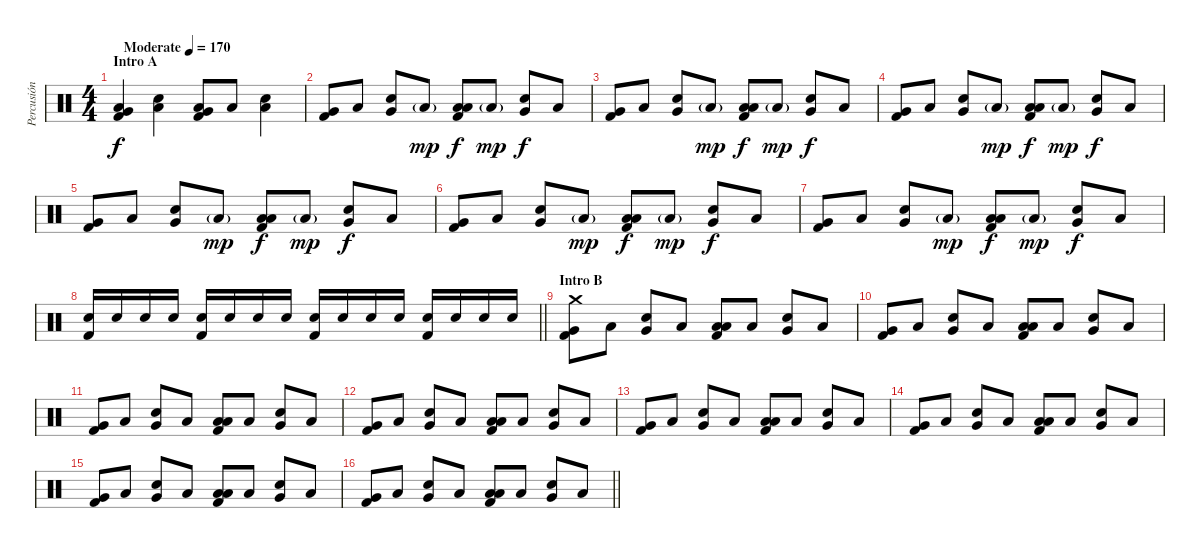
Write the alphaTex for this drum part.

\track ("Percusión" "Percusión") {instrument percussion}
\staff {score}
\articulation defaults
\ts (4 4)
\section ("" "Intro A")
\tempo (170 "Moderate")
\clef neutral
\ks c
("Very Low Tom (hit)" "Low Floor Tom (hit)" "Kick (hit) 2").4{dy f} ("Snare (hit) 2" "Low Tom (hit)").4 ("Very Low Tom (hit)" "Low Floor Tom (hit)" "Kick (hit) 2").8 "Low Tom (hit)".8 ("Snare (hit) 2" "Low Tom (hit)").4 |
("Very Low Tom (hit)" "Kick (hit) 2").8 "Low Tom (hit)".8 ("Snare (hit) 2" "Very Low Tom (hit)").8 "Low Tom (hit)"{g}.8{dy mp} ("Low Tom (hit)" "Low Floor Tom (hit)" "Kick (hit) 2").8{dy f} "Low Tom (hit)"{g}.8{dy mp} ("Snare (hit) 2" "Very Low Tom (hit)").8{dy f} "Low Tom (hit)".8 |
("Very Low Tom (hit)" "Kick (hit) 2").8 "Low Tom (hit)".8 ("Snare (hit) 2" "Very Low Tom (hit)").8 "Low Tom (hit)"{g}.8{dy mp} ("Low Tom (hit)" "Low Floor Tom (hit)" "Kick (hit) 2").8{dy f} "Low Tom (hit)"{g}.8{dy mp} ("Snare (hit) 2" "Very Low Tom (hit)").8{dy f} "Low Tom (hit)".8 |
("Very Low Tom (hit)" "Kick (hit) 2").8 "Low Tom (hit)".8 ("Snare (hit) 2" "Very Low Tom (hit)").8 "Low Tom (hit)"{g}.8{dy mp} ("Low Tom (hit)" "Low Floor Tom (hit)" "Kick (hit) 2").8{dy f} "Low Tom (hit)"{g}.8{dy mp} ("Snare (hit) 2" "Very Low Tom (hit)").8{dy f} "Low Tom (hit)".8 |
("Very Low Tom (hit)" "Kick (hit) 2").8 "Low Tom (hit)".8 ("Snare (hit) 2" "Very Low Tom (hit)").8 "Low Tom (hit)"{g}.8{dy mp} ("Low Tom (hit)" "Low Floor Tom (hit)" "Kick (hit) 2").8{dy f} "Low Tom (hit)"{g}.8{dy mp} ("Snare (hit) 2" "Very Low Tom (hit)").8{dy f} "Low Tom (hit)".8 |
("Very Low Tom (hit)" "Kick (hit) 2").8 "Low Tom (hit)".8 ("Snare (hit) 2" "Very Low Tom (hit)").8 "Low Tom (hit)"{g}.8{dy mp} ("Low Tom (hit)" "Low Floor Tom (hit)" "Kick (hit) 2").8{dy f} "Low Tom (hit)"{g}.8{dy mp} ("Snare (hit) 2" "Very Low Tom (hit)").8{dy f} "Low Tom (hit)".8 |
("Very Low Tom (hit)" "Kick (hit) 2").8 "Low Tom (hit)".8 ("Snare (hit) 2" "Very Low Tom (hit)").8 "Low Tom (hit)"{g}.8{dy mp} ("Low Tom (hit)" "Low Floor Tom (hit)" "Kick (hit) 2").8{dy f} "Low Tom (hit)"{g}.8{dy mp} ("Snare (hit) 2" "Very Low Tom (hit)").8{dy f} "Low Tom (hit)".8 |
\barLineRight lightlight
("Electric Snare (hit)" "Kick (hit) 2").16 "Electric Snare (hit)".16 "Electric Snare (hit)".16 "Electric Snare (hit)".16 ("Electric Snare (hit)" "Kick (hit) 2").16 "Electric Snare (hit)".16 "Electric Snare (hit)".16 "Electric Snare (hit)".16 ("Electric Snare (hit)" "Kick (hit) 2").16 "Electric Snare (hit)".16 "Electric Snare (hit)".16 "Electric Snare (hit)".16 ("Electric Snare (hit)" "Kick (hit) 2").16 "Electric Snare (hit)".16 "Electric Snare (hit)".16 "Electric Snare (hit)".16 |
\section ("" "Intro B")
("Crash medium (hit)" "Very Low Tom (hit)" "Kick (hit) 2").8 "Low Tom (hit)".8 ("Snare (hit) 2" "Very Low Tom (hit)").8 "Low Tom (hit)".8 ("Low Tom (hit)" "Low Floor Tom (hit)" "Kick (hit) 2").8 "Low Tom (hit)".8 ("Snare (hit) 2" "Very Low Tom (hit)").8 "Low Tom (hit)".8 |
("Very Low Tom (hit)" "Kick (hit) 2").8 "Low Tom (hit)".8 ("Snare (hit) 2" "Very Low Tom (hit)").8 "Low Tom (hit)".8 ("Low Tom (hit)" "Low Floor Tom (hit)" "Kick (hit) 2").8 "Low Tom (hit)".8 ("Snare (hit) 2" "Very Low Tom (hit)").8 "Low Tom (hit)".8 |
("Very Low Tom (hit)" "Kick (hit) 2").8 "Low Tom (hit)".8 ("Snare (hit) 2" "Very Low Tom (hit)").8 "Low Tom (hit)".8 ("Low Tom (hit)" "Low Floor Tom (hit)" "Kick (hit) 2").8 "Low Tom (hit)".8 ("Snare (hit) 2" "Very Low Tom (hit)").8 "Low Tom (hit)".8 |
("Very Low Tom (hit)" "Kick (hit) 2").8 "Low Tom (hit)".8 ("Snare (hit) 2" "Very Low Tom (hit)").8 "Low Tom (hit)".8 ("Low Tom (hit)" "Low Floor Tom (hit)" "Kick (hit) 2").8 "Low Tom (hit)".8 ("Snare (hit) 2" "Very Low Tom (hit)").8 "Low Tom (hit)".8 |
("Very Low Tom (hit)" "Kick (hit) 2").8 "Low Tom (hit)".8 ("Snare (hit) 2" "Very Low Tom (hit)").8 "Low Tom (hit)".8 ("Low Tom (hit)" "Low Floor Tom (hit)" "Kick (hit) 2").8 "Low Tom (hit)".8 ("Snare (hit) 2" "Very Low Tom (hit)").8 "Low Tom (hit)".8 |
("Very Low Tom (hit)" "Kick (hit) 2").8 "Low Tom (hit)".8 ("Snare (hit) 2" "Very Low Tom (hit)").8 "Low Tom (hit)".8 ("Low Tom (hit)" "Low Floor Tom (hit)" "Kick (hit) 2").8 "Low Tom (hit)".8 ("Snare (hit) 2" "Very Low Tom (hit)").8 "Low Tom (hit)".8 |
("Very Low Tom (hit)" "Kick (hit) 2").8 "Low Tom (hit)".8 ("Snare (hit) 2" "Very Low Tom (hit)").8 "Low Tom (hit)".8 ("Low Tom (hit)" "Low Floor Tom (hit)" "Kick (hit) 2").8 "Low Tom (hit)".8 ("Snare (hit) 2" "Very Low Tom (hit)").8 "Low Tom (hit)".8 |
\barLineRight lightlight
("Very Low Tom (hit)" "Kick (hit) 2").8 "Low Tom (hit)".8 ("Snare (hit) 2" "Very Low Tom (hit)").8 "Low Tom (hit)".8 ("Low Tom (hit)" "Low Floor Tom (hit)" "Kick (hit) 2").8 "Low Tom (hit)".8 ("Snare (hit) 2" "Very Low Tom (hit)").8 "Low Tom (hit)".8
